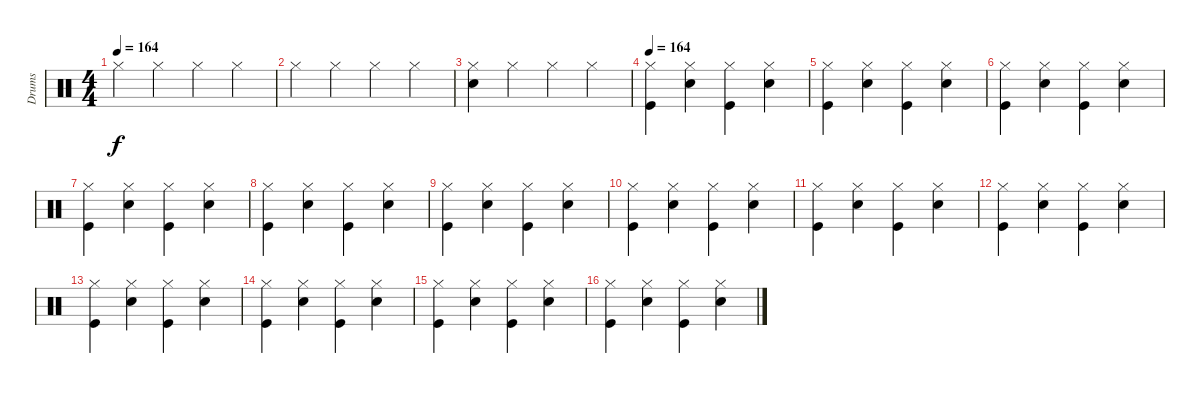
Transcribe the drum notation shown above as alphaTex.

\track ("Drums" "Drums") {instrument percussion}
\staff {score}
\articulation defaults
\ts (4 4)
\tempo 164
\clef neutral
\ks c "Hi-Hat (closed)".4{dy f} "Hi-Hat (closed)".4 "Hi-Hat (closed)".4 "Hi-Hat (closed)".4
|
"Hi-Hat (closed)".4 "Hi-Hat (closed)".4 "Hi-Hat (closed)".4 "Hi-Hat (closed)".4 |
("Electric Snare (hit)" "Hi-Hat (closed)").4 "Hi-Hat (closed)".4 "Hi-Hat (closed)".4 "Hi-Hat (closed)".4 |
\tempo 164
("Hi-Hat (closed)" "Kick (hit)").4 ("Hi-Hat (closed)" "Snare (hit) 2").4 ("Hi-Hat (closed)" "Kick (hit)").4 ("Hi-Hat (closed)" "Snare (hit) 2").4 |
("Hi-Hat (closed)" "Kick (hit)").4 ("Hi-Hat (closed)" "Snare (hit) 2").4 ("Hi-Hat (closed)" "Kick (hit)").4 ("Hi-Hat (closed)" "Snare (hit) 2").4 |
("Hi-Hat (closed)" "Kick (hit)").4 ("Hi-Hat (closed)" "Snare (hit) 2").4 ("Hi-Hat (closed)" "Kick (hit)").4 ("Hi-Hat (closed)" "Snare (hit) 2").4 |
("Hi-Hat (closed)" "Kick (hit)").4 ("Hi-Hat (closed)" "Snare (hit) 2").4 ("Hi-Hat (closed)" "Kick (hit)").4 ("Hi-Hat (closed)" "Snare (hit) 2").4 |
("Hi-Hat (closed)" "Kick (hit)").4 ("Hi-Hat (closed)" "Snare (hit) 2").4 ("Hi-Hat (closed)" "Kick (hit)").4 ("Hi-Hat (closed)" "Snare (hit) 2").4 |
("Hi-Hat (closed)" "Kick (hit)").4 ("Hi-Hat (closed)" "Snare (hit) 2").4 ("Hi-Hat (closed)" "Kick (hit)").4 ("Hi-Hat (closed)" "Snare (hit) 2").4 |
("Hi-Hat (closed)" "Kick (hit)").4 ("Hi-Hat (closed)" "Snare (hit) 2").4 ("Hi-Hat (closed)" "Kick (hit)").4 ("Hi-Hat (closed)" "Snare (hit) 2").4 |
("Hi-Hat (closed)" "Kick (hit)").4 ("Hi-Hat (closed)" "Snare (hit) 2").4 ("Hi-Hat (closed)" "Kick (hit)").4 ("Hi-Hat (closed)" "Snare (hit) 2").4 |
("Hi-Hat (closed)" "Kick (hit)").4 ("Hi-Hat (closed)" "Snare (hit) 2").4 ("Hi-Hat (closed)" "Kick (hit)").4 ("Hi-Hat (closed)" "Snare (hit) 2").4 |
("Hi-Hat (closed)" "Kick (hit)").4 ("Hi-Hat (closed)" "Snare (hit) 2").4 ("Hi-Hat (closed)" "Kick (hit)").4 ("Hi-Hat (closed)" "Snare (hit) 2").4 |
("Hi-Hat (closed)" "Kick (hit)").4 ("Hi-Hat (closed)" "Snare (hit) 2").4 ("Hi-Hat (closed)" "Kick (hit)").4 ("Hi-Hat (closed)" "Snare (hit) 2").4 |
("Hi-Hat (closed)" "Kick (hit)").4 ("Hi-Hat (closed)" "Snare (hit) 2").4 ("Hi-Hat (closed)" "Kick (hit)").4 ("Hi-Hat (closed)" "Snare (hit) 2").4 |
("Hi-Hat (closed)" "Kick (hit)").4 ("Hi-Hat (closed)" "Snare (hit) 2").4 ("Hi-Hat (closed)" "Kick (hit)").4 ("Hi-Hat (closed)" "Snare (hit) 2").4
